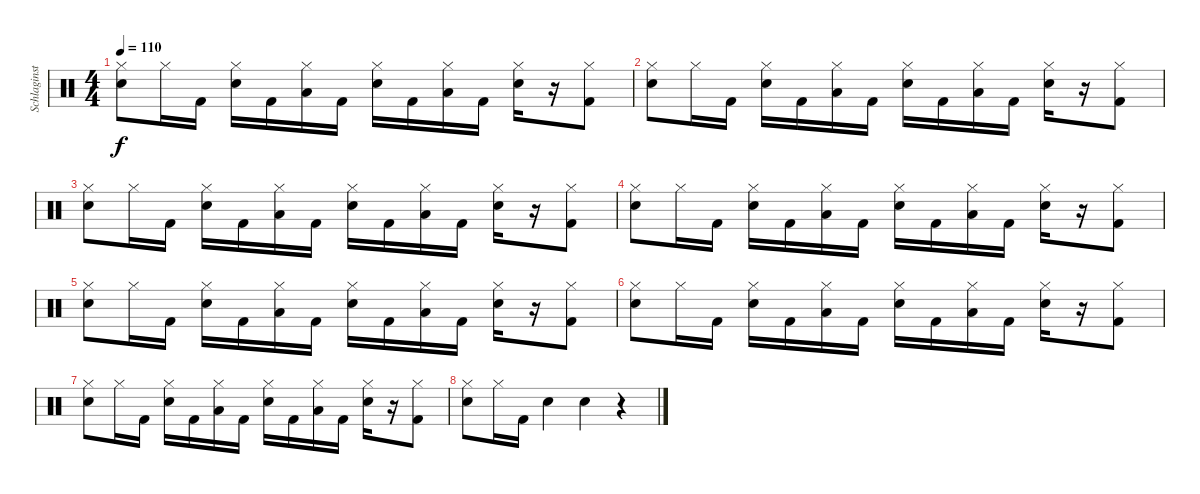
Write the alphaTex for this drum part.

\track ("Schlaginstrumente - Auswahl" "Schlaginst") {instrument percussion}
\staff {score}
\articulation defaults
\ts (4 4)
\tempo 110
\clef neutral
\ks c
("Hi-Hat (closed)" "Snare (hit) 2").8{dy f} "Hi-Hat (closed)".16 "Kick (hit) 2".16 ("Hi-Hat (closed)" "Snare (hit) 2").16 "Kick (hit) 2".16 ("Hi-Hat (closed)" "Low Floor Tom (hit)").16 "Kick (hit) 2".16 ("Hi-Hat (closed)" "Snare (hit) 2").16 "Kick (hit) 2".16 ("Hi-Hat (closed)" "Low Floor Tom (hit)").16 "Kick (hit) 2".16 ("Hi-Hat (closed)" "Snare (hit) 2").16 r.16 ("Hi-Hat (closed)" "Kick (hit) 2").8 |
("Hi-Hat (closed)" "Snare (hit) 2").8 "Hi-Hat (closed)".16 "Kick (hit) 2".16 ("Hi-Hat (closed)" "Snare (hit) 2").16 "Kick (hit) 2".16 ("Hi-Hat (closed)" "Low Floor Tom (hit)").16 "Kick (hit) 2".16 ("Hi-Hat (closed)" "Snare (hit) 2").16 "Kick (hit) 2".16 ("Hi-Hat (closed)" "Low Floor Tom (hit)").16 "Kick (hit) 2".16 ("Hi-Hat (closed)" "Snare (hit) 2").16 r.16 ("Hi-Hat (closed)" "Kick (hit) 2").8 |
("Hi-Hat (closed)" "Snare (hit) 2").8 "Hi-Hat (closed)".16 "Kick (hit) 2".16 ("Hi-Hat (closed)" "Snare (hit) 2").16 "Kick (hit) 2".16 ("Hi-Hat (closed)" "Low Floor Tom (hit)").16 "Kick (hit) 2".16 ("Hi-Hat (closed)" "Snare (hit) 2").16 "Kick (hit) 2".16 ("Hi-Hat (closed)" "Low Floor Tom (hit)").16 "Kick (hit) 2".16 ("Hi-Hat (closed)" "Snare (hit) 2").16 r.16 ("Hi-Hat (closed)" "Kick (hit) 2").8 |
("Hi-Hat (closed)" "Snare (hit) 2").8 "Hi-Hat (closed)".16 "Kick (hit) 2".16 ("Hi-Hat (closed)" "Snare (hit) 2").16 "Kick (hit) 2".16 ("Hi-Hat (closed)" "Low Floor Tom (hit)").16 "Kick (hit) 2".16 ("Hi-Hat (closed)" "Snare (hit) 2").16 "Kick (hit) 2".16 ("Hi-Hat (closed)" "Low Floor Tom (hit)").16 "Kick (hit) 2".16 ("Hi-Hat (closed)" "Snare (hit) 2").16 r.16 ("Hi-Hat (closed)" "Kick (hit) 2").8 |
("Hi-Hat (closed)" "Snare (hit) 2").8 "Hi-Hat (closed)".16 "Kick (hit) 2".16 ("Hi-Hat (closed)" "Snare (hit) 2").16 "Kick (hit) 2".16 ("Hi-Hat (closed)" "Low Floor Tom (hit)").16 "Kick (hit) 2".16 ("Hi-Hat (closed)" "Snare (hit) 2").16 "Kick (hit) 2".16 ("Hi-Hat (closed)" "Low Floor Tom (hit)").16 "Kick (hit) 2".16 ("Hi-Hat (closed)" "Snare (hit) 2").16 r.16 ("Hi-Hat (closed)" "Kick (hit) 2").8 |
("Hi-Hat (closed)" "Snare (hit) 2").8 "Hi-Hat (closed)".16 "Kick (hit) 2".16 ("Hi-Hat (closed)" "Snare (hit) 2").16 "Kick (hit) 2".16 ("Hi-Hat (closed)" "Low Floor Tom (hit)").16 "Kick (hit) 2".16 ("Hi-Hat (closed)" "Snare (hit) 2").16 "Kick (hit) 2".16 ("Hi-Hat (closed)" "Low Floor Tom (hit)").16 "Kick (hit) 2".16 ("Hi-Hat (closed)" "Snare (hit) 2").16 r.16 ("Hi-Hat (closed)" "Kick (hit) 2").8 |
("Hi-Hat (closed)" "Snare (hit) 2").8 "Hi-Hat (closed)".16 "Kick (hit) 2".16 ("Hi-Hat (closed)" "Snare (hit) 2").16 "Kick (hit) 2".16 ("Hi-Hat (closed)" "Low Floor Tom (hit)").16 "Kick (hit) 2".16 ("Hi-Hat (closed)" "Snare (hit) 2").16 "Kick (hit) 2".16 ("Hi-Hat (closed)" "Low Floor Tom (hit)").16 "Kick (hit) 2".16 ("Hi-Hat (closed)" "Snare (hit) 2").16 r.16 ("Hi-Hat (closed)" "Kick (hit) 2").8 |
("Hi-Hat (closed)" "Snare (hit) 2").8 "Hi-Hat (closed)".16 "Kick (hit) 2".16 "Snare (hit) 2".4 "Snare (hit) 2".4 r.4
